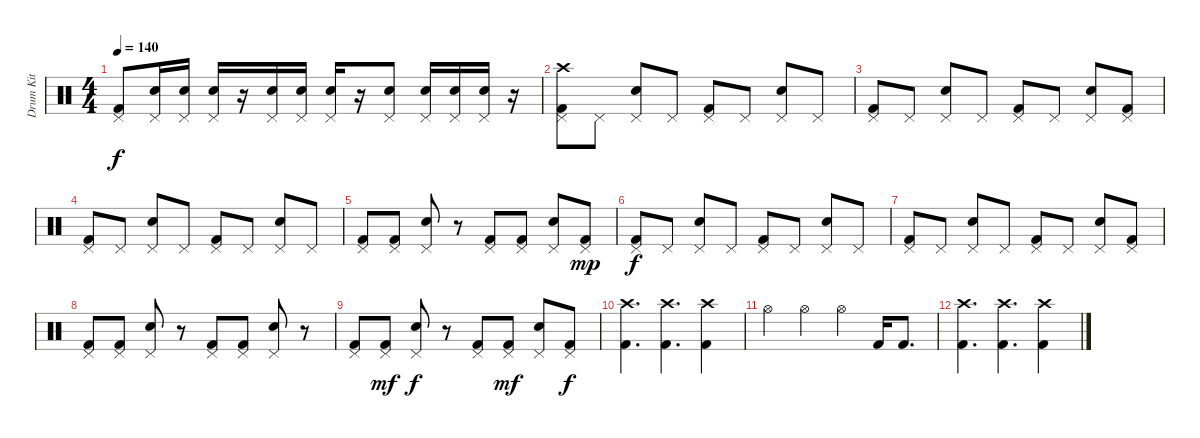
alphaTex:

\track ("Drum Kit" "Drum Kit") {instrument percussion}
\staff {score}
\articulation defaults
\ts (4 4)
\tempo 140
\clef neutral
\ks c
("Pedal Hi-Hat (hit)" "Kick (hit) 2").8{dy f} ("Pedal Hi-Hat (hit)" "Electric Snare (hit)").16 ("Pedal Hi-Hat (hit)" "Electric Snare (hit)").16 ("Pedal Hi-Hat (hit)" "Electric Snare (hit)").16 r.16 ("Pedal Hi-Hat (hit)" "Electric Snare (hit)").16 ("Pedal Hi-Hat (hit)" "Electric Snare (hit)").16 ("Pedal Hi-Hat (hit)" "Electric Snare (hit)").16 r.16 ("Pedal Hi-Hat (hit)" "Electric Snare (hit)").8 ("Pedal Hi-Hat (hit)" "Electric Snare (hit)").16 ("Pedal Hi-Hat (hit)" "Electric Snare (hit)").16 ("Pedal Hi-Hat (hit)" "Electric Snare (hit)").16 r.16 |
("Crash high (hit)" "Pedal Hi-Hat (hit)" "Kick (hit) 2").8 "Pedal Hi-Hat (hit)".8 ("Pedal Hi-Hat (hit)" "Electric Snare (hit)").8 "Pedal Hi-Hat (hit)".8 ("Pedal Hi-Hat (hit)" "Kick (hit) 2").8 "Pedal Hi-Hat (hit)".8 ("Pedal Hi-Hat (hit)" "Electric Snare (hit)").8 "Pedal Hi-Hat (hit)".8 |
("Pedal Hi-Hat (hit)" "Kick (hit) 2").8 "Pedal Hi-Hat (hit)".8 ("Pedal Hi-Hat (hit)" "Electric Snare (hit)").8 "Pedal Hi-Hat (hit)".8 ("Pedal Hi-Hat (hit)" "Kick (hit) 2").8 "Pedal Hi-Hat (hit)".8 ("Pedal Hi-Hat (hit)" "Electric Snare (hit)").8 ("Pedal Hi-Hat (hit)" "Kick (hit) 2").8 |
("Pedal Hi-Hat (hit)" "Kick (hit) 2").8 "Pedal Hi-Hat (hit)".8 ("Pedal Hi-Hat (hit)" "Electric Snare (hit)").8 "Pedal Hi-Hat (hit)".8 ("Pedal Hi-Hat (hit)" "Kick (hit) 2").8 "Pedal Hi-Hat (hit)".8 ("Pedal Hi-Hat (hit)" "Electric Snare (hit)").8 "Pedal Hi-Hat (hit)".8 |
("Pedal Hi-Hat (hit)" "Kick (hit) 2").8 ("Pedal Hi-Hat (hit)" "Kick (hit) 2").8 ("Pedal Hi-Hat (hit)" "Electric Snare (hit)").8 r.8 ("Pedal Hi-Hat (hit)" "Kick (hit) 2").8 ("Pedal Hi-Hat (hit)" "Kick (hit) 2").8 ("Pedal Hi-Hat (hit)" "Electric Snare (hit)").8 ("Pedal Hi-Hat (hit)" "Kick (hit) 2").8{dy mp} |
("Pedal Hi-Hat (hit)" "Kick (hit) 2").8{dy f} "Pedal Hi-Hat (hit)".8 ("Pedal Hi-Hat (hit)" "Electric Snare (hit)").8 "Pedal Hi-Hat (hit)".8 ("Pedal Hi-Hat (hit)" "Kick (hit) 2").8 "Pedal Hi-Hat (hit)".8 ("Pedal Hi-Hat (hit)" "Electric Snare (hit)").8 "Pedal Hi-Hat (hit)".8 |
("Pedal Hi-Hat (hit)" "Kick (hit) 2").8 "Pedal Hi-Hat (hit)".8 ("Pedal Hi-Hat (hit)" "Electric Snare (hit)").8 "Pedal Hi-Hat (hit)".8 ("Pedal Hi-Hat (hit)" "Kick (hit) 2").8 "Pedal Hi-Hat (hit)".8 ("Pedal Hi-Hat (hit)" "Electric Snare (hit)").8 ("Pedal Hi-Hat (hit)" "Kick (hit) 2").8 |
("Pedal Hi-Hat (hit)" "Kick (hit) 2").8 ("Pedal Hi-Hat (hit)" "Kick (hit) 2").8 ("Pedal Hi-Hat (hit)" "Electric Snare (hit)").8 r.8 ("Pedal Hi-Hat (hit)" "Kick (hit) 2").8 ("Pedal Hi-Hat (hit)" "Kick (hit) 2").8 ("Pedal Hi-Hat (hit)" "Electric Snare (hit)").8 r.8 |
("Pedal Hi-Hat (hit)" "Kick (hit) 2").8 ("Pedal Hi-Hat (hit)" "Kick (hit) 2").8{dy mf} ("Pedal Hi-Hat (hit)" "Electric Snare (hit)").8{dy f} r.8 ("Pedal Hi-Hat (hit)" "Kick (hit) 2").8 ("Pedal Hi-Hat (hit)" "Kick (hit) 2").8{dy mf} ("Pedal Hi-Hat (hit)" "Electric Snare (hit)").8 ("Pedal Hi-Hat (hit)" "Kick (hit) 2").8{dy f} |
("Crash high (hit)" "Kick (hit) 2").4{d} ("Crash high (hit)" "Kick (hit) 2").4{d} ("Crash high (hit)" "Kick (hit) 2").4 |
"Hi-Hat (open)".4 "Hi-Hat (open)".4 "Hi-Hat (open)".4 "Kick (hit) 2".16 "Kick (hit) 2".8{d} |
("Crash high (hit)" "Kick (hit) 2").4{d} ("Crash high (hit)" "Kick (hit) 2").4{d} ("Crash high (hit)" "Kick (hit) 2").4
